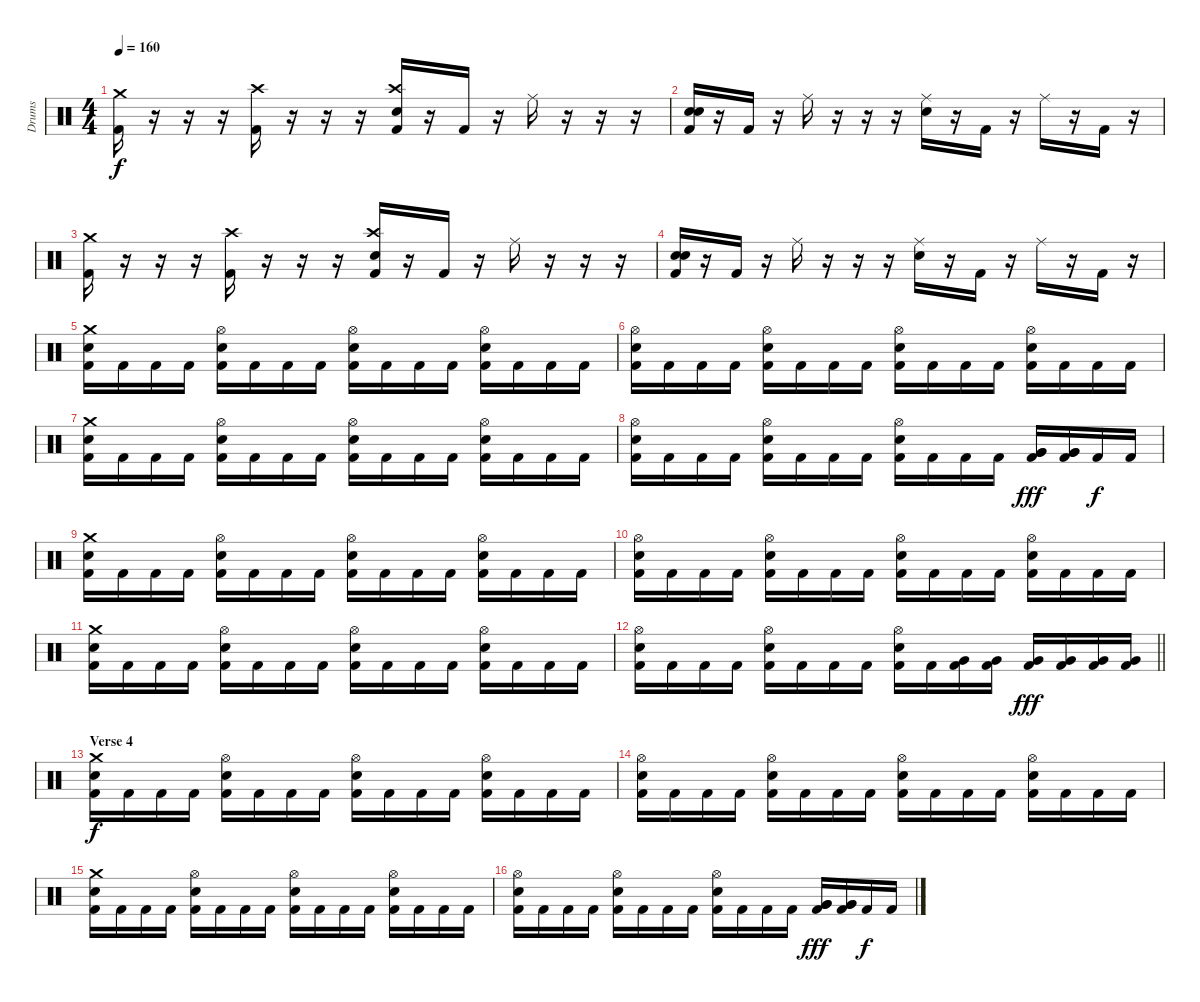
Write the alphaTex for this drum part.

\track ("Drums" "Drums") {instrument percussion}
\staff {score}
\articulation defaults
\ts (4 4)
\tempo 160
\clef neutral
\ks c
("Crash medium (hit)" "Kick (hit) 2").16{dy f} r.16 r.16 r.16 ("Crash high (hit)" "Kick (hit) 2").16 r.16 r.16 r.16 ("Crash high (hit)" "Electric Snare (hit)" "Kick (hit) 2").16 r.16 "Kick (hit) 2".16 r.16 "Ride (middle)".16 r.16 r.16 r.16 |
("Electric Snare (hit)" "Electric Snare (hit)" "Kick (hit) 2").16 r.16 "Kick (hit) 2".16 r.16 "Ride (middle)".16 r.16 r.16 r.16 ("Ride (middle)" "Electric Snare (hit)").16 r.16 "Kick (hit) 2".16 r.16 "Ride (middle)".16 r.16 "Kick (hit) 2".16 r.16 |
("Crash medium (hit)" "Kick (hit) 2").16 r.16 r.16 r.16 ("Crash high (hit)" "Kick (hit) 2").16 r.16 r.16 r.16 ("Crash high (hit)" "Electric Snare (hit)" "Kick (hit) 2").16 r.16 "Kick (hit) 2".16 r.16 "Ride (middle)".16 r.16 r.16 r.16 |
("Electric Snare (hit)" "Electric Snare (hit)" "Kick (hit) 2").16 r.16 "Kick (hit) 2".16 r.16 "Ride (middle)".16 r.16 r.16 r.16 ("Ride (middle)" "Electric Snare (hit)").16 r.16 "Kick (hit) 2".16 r.16 "Ride (middle)".16 r.16 "Kick (hit) 2".16 r.16 |
("Crash medium (hit)" "Electric Snare (hit)" "Kick (hit) 2").16 "Kick (hit) 2".16 "Kick (hit) 2".16 "Kick (hit) 2".16 ("Hi-Hat (open)" "Electric Snare (hit)" "Kick (hit) 2").16 "Kick (hit) 2".16 "Kick (hit) 2".16 "Kick (hit) 2".16 ("Hi-Hat (open)" "Electric Snare (hit)" "Kick (hit) 2").16 "Kick (hit) 2".16 "Kick (hit) 2".16 "Kick (hit) 2".16 ("Hi-Hat (open)" "Electric Snare (hit)" "Kick (hit) 2").16 "Kick (hit) 2".16 "Kick (hit) 2".16 "Kick (hit) 2".16 |
("Hi-Hat (open)" "Electric Snare (hit)" "Kick (hit) 2").16 "Kick (hit) 2".16 "Kick (hit) 2".16 "Kick (hit) 2".16 ("Hi-Hat (open)" "Electric Snare (hit)" "Kick (hit) 2").16 "Kick (hit) 2".16 "Kick (hit) 2".16 "Kick (hit) 2".16 ("Hi-Hat (open)" "Electric Snare (hit)" "Kick (hit) 2").16 "Kick (hit) 2".16 "Kick (hit) 2".16 "Kick (hit) 2".16 ("Hi-Hat (open)" "Electric Snare (hit)" "Kick (hit) 2").16 "Kick (hit) 2".16 "Kick (hit) 2".16 "Kick (hit) 2".16 |
("Crash medium (hit)" "Electric Snare (hit)" "Kick (hit) 2").16 "Kick (hit) 2".16 "Kick (hit) 2".16 "Kick (hit) 2".16 ("Hi-Hat (open)" "Electric Snare (hit)" "Kick (hit) 2").16 "Kick (hit) 2".16 "Kick (hit) 2".16 "Kick (hit) 2".16 ("Hi-Hat (open)" "Electric Snare (hit)" "Kick (hit) 2").16 "Kick (hit) 2".16 "Kick (hit) 2".16 "Kick (hit) 2".16 ("Hi-Hat (open)" "Electric Snare (hit)" "Kick (hit) 2").16 "Kick (hit) 2".16 "Kick (hit) 2".16 "Kick (hit) 2".16 |
("Hi-Hat (open)" "Electric Snare (hit)" "Kick (hit) 2").16 "Kick (hit) 2".16 "Kick (hit) 2".16 "Kick (hit) 2".16 ("Hi-Hat (open)" "Electric Snare (hit)" "Kick (hit) 2").16 "Kick (hit) 2".16 "Kick (hit) 2".16 "Kick (hit) 2".16 ("Hi-Hat (open)" "Electric Snare (hit)" "Kick (hit) 2").16 "Kick (hit) 2".16 "Kick (hit) 2".16 "Kick (hit) 2".16 ("Very Low Tom (hit)" "Very Low Tom (hit)" "Kick (hit) 2").16{dy fff} ("Very Low Tom (hit)" "Very Low Tom (hit)" "Kick (hit) 2").16 "Kick (hit) 2".16{dy f} "Kick (hit) 2".16 |
("Crash medium (hit)" "Electric Snare (hit)" "Kick (hit) 2").16 "Kick (hit) 2".16 "Kick (hit) 2".16 "Kick (hit) 2".16 ("Hi-Hat (open)" "Electric Snare (hit)" "Kick (hit) 2").16 "Kick (hit) 2".16 "Kick (hit) 2".16 "Kick (hit) 2".16 ("Hi-Hat (open)" "Electric Snare (hit)" "Kick (hit) 2").16 "Kick (hit) 2".16 "Kick (hit) 2".16 "Kick (hit) 2".16 ("Hi-Hat (open)" "Electric Snare (hit)" "Kick (hit) 2").16 "Kick (hit) 2".16 "Kick (hit) 2".16 "Kick (hit) 2".16 |
("Hi-Hat (open)" "Electric Snare (hit)" "Kick (hit) 2").16 "Kick (hit) 2".16 "Kick (hit) 2".16 "Kick (hit) 2".16 ("Hi-Hat (open)" "Electric Snare (hit)" "Kick (hit) 2").16 "Kick (hit) 2".16 "Kick (hit) 2".16 "Kick (hit) 2".16 ("Hi-Hat (open)" "Electric Snare (hit)" "Kick (hit) 2").16 "Kick (hit) 2".16 "Kick (hit) 2".16 "Kick (hit) 2".16 ("Hi-Hat (open)" "Electric Snare (hit)" "Kick (hit) 2").16 "Kick (hit) 2".16 "Kick (hit) 2".16 "Kick (hit) 2".16 |
("Crash medium (hit)" "Electric Snare (hit)" "Kick (hit) 2").16 "Kick (hit) 2".16 "Kick (hit) 2".16 "Kick (hit) 2".16 ("Hi-Hat (open)" "Electric Snare (hit)" "Kick (hit) 2").16 "Kick (hit) 2".16 "Kick (hit) 2".16 "Kick (hit) 2".16 ("Hi-Hat (open)" "Electric Snare (hit)" "Kick (hit) 2").16 "Kick (hit) 2".16 "Kick (hit) 2".16 "Kick (hit) 2".16 ("Hi-Hat (open)" "Electric Snare (hit)" "Kick (hit) 2").16 "Kick (hit) 2".16 "Kick (hit) 2".16 "Kick (hit) 2".16 |
\barLineRight lightlight
("Hi-Hat (open)" "Electric Snare (hit)" "Kick (hit) 2").16 "Kick (hit) 2".16 "Kick (hit) 2".16 "Kick (hit) 2".16 ("Hi-Hat (open)" "Electric Snare (hit)" "Kick (hit) 2").16 "Kick (hit) 2".16 "Kick (hit) 2".16 "Kick (hit) 2".16 ("Hi-Hat (open)" "Electric Snare (hit)" "Kick (hit) 2").16 "Kick (hit) 2".16 ("Very Low Tom (hit)" "Kick (hit) 2").16 ("Very Low Tom (hit)" "Kick (hit) 2").16 ("Very Low Tom (hit)" "Kick (hit) 2").16{dy fff} ("Very Low Tom (hit)" "Kick (hit) 2").16 ("Very Low Tom (hit)" "Kick (hit) 2").16 ("Very Low Tom (hit)" "Kick (hit) 2").16 |
\section ("" "Verse 4")
("Crash medium (hit)" "Electric Snare (hit)" "Kick (hit) 2").16{dy f} "Kick (hit) 2".16 "Kick (hit) 2".16 "Kick (hit) 2".16 ("Hi-Hat (open)" "Electric Snare (hit)" "Kick (hit) 2").16 "Kick (hit) 2".16 "Kick (hit) 2".16 "Kick (hit) 2".16 ("Hi-Hat (open)" "Electric Snare (hit)" "Kick (hit) 2").16 "Kick (hit) 2".16 "Kick (hit) 2".16 "Kick (hit) 2".16 ("Hi-Hat (open)" "Electric Snare (hit)" "Kick (hit) 2").16 "Kick (hit) 2".16 "Kick (hit) 2".16 "Kick (hit) 2".16 |
("Hi-Hat (open)" "Electric Snare (hit)" "Kick (hit) 2").16 "Kick (hit) 2".16 "Kick (hit) 2".16 "Kick (hit) 2".16 ("Hi-Hat (open)" "Electric Snare (hit)" "Kick (hit) 2").16 "Kick (hit) 2".16 "Kick (hit) 2".16 "Kick (hit) 2".16 ("Hi-Hat (open)" "Electric Snare (hit)" "Kick (hit) 2").16 "Kick (hit) 2".16 "Kick (hit) 2".16 "Kick (hit) 2".16 ("Hi-Hat (open)" "Electric Snare (hit)" "Kick (hit) 2").16 "Kick (hit) 2".16 "Kick (hit) 2".16 "Kick (hit) 2".16 |
("Crash medium (hit)" "Electric Snare (hit)" "Kick (hit) 2").16 "Kick (hit) 2".16 "Kick (hit) 2".16 "Kick (hit) 2".16 ("Hi-Hat (open)" "Electric Snare (hit)" "Kick (hit) 2").16 "Kick (hit) 2".16 "Kick (hit) 2".16 "Kick (hit) 2".16 ("Hi-Hat (open)" "Electric Snare (hit)" "Kick (hit) 2").16 "Kick (hit) 2".16 "Kick (hit) 2".16 "Kick (hit) 2".16 ("Hi-Hat (open)" "Electric Snare (hit)" "Kick (hit) 2").16 "Kick (hit) 2".16 "Kick (hit) 2".16 "Kick (hit) 2".16 |
("Hi-Hat (open)" "Electric Snare (hit)" "Kick (hit) 2").16 "Kick (hit) 2".16 "Kick (hit) 2".16 "Kick (hit) 2".16 ("Hi-Hat (open)" "Electric Snare (hit)" "Kick (hit) 2").16 "Kick (hit) 2".16 "Kick (hit) 2".16 "Kick (hit) 2".16 ("Hi-Hat (open)" "Electric Snare (hit)" "Kick (hit) 2").16 "Kick (hit) 2".16 "Kick (hit) 2".16 "Kick (hit) 2".16 ("Very Low Tom (hit)" "Very Low Tom (hit)" "Kick (hit) 2").16{dy fff} ("Very Low Tom (hit)" "Very Low Tom (hit)" "Kick (hit) 2").16 "Kick (hit) 2".16{dy f} "Kick (hit) 2".16
